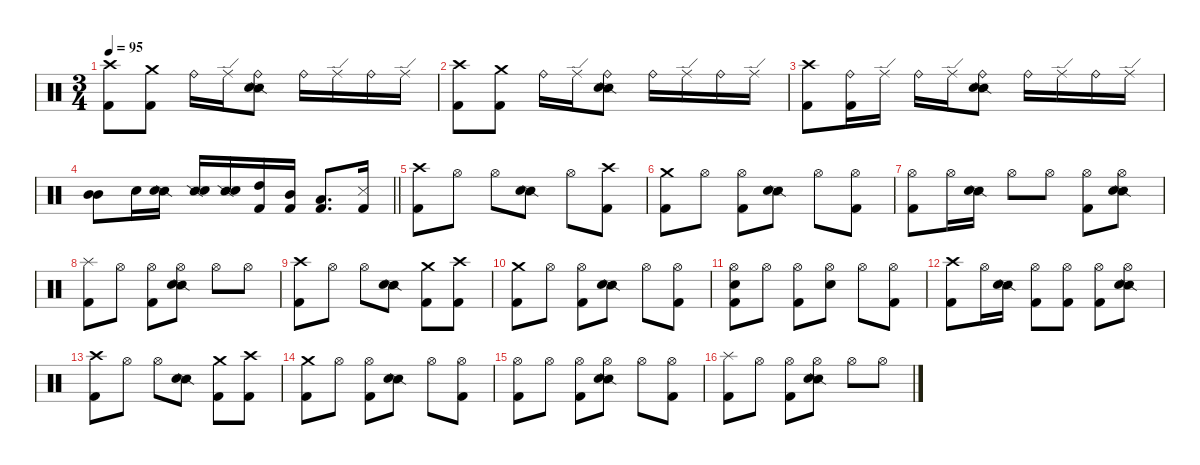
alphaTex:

\defaultSystemsLayout 4
\hideDynamics
\bracketExtendMode nobrackets
\singleTrackTrackNamePolicy hidden
\multiTrackTrackNamePolicy hidden
\firstSystemTrackNameMode fullname
\firstSystemTrackNameOrientation horizontal
\otherSystemsTrackNameOrientation horizontal
\track ("Drums" "drm.") {defaultSystemsLayout 4 instrument percussion}
\staff {score}
\articulation defaults
\ts (3 4)
\tempo 95
\clef neutral
\ks c
("Crash high (hit)" "Kick (hit) 2").8{dy fff beam Down} ("Crash medium (hit)" "Kick (hit) 2").8{beam Down} "Ride (bell)".16{dy f beam Down} "Ride (edge)".16{beam Down} ("Ride (bell)" "Snare (side stick) 2" "Snare (hit) 2").8{beam Down} "Ride (bell)".16{beam Down} "Ride (edge)".16{beam Down} "Ride (bell)".16{beam Down} "Ride (edge)".16{beam Down} |
("Crash high (hit)" "Kick (hit) 2").8{dy fff beam Down} ("Crash medium (hit)" "Kick (hit) 2").8{beam Down} "Ride (bell)".16{dy f beam Down} "Ride (edge)".16{beam Down} ("Ride (bell)" "Snare (side stick) 2" "Snare (hit) 2").8{beam Down} "Ride (bell)".16{beam Down} "Ride (edge)".16{beam Down} "Ride (bell)".16{beam Down} "Ride (edge)".16{beam Down} |
("Crash high (hit)" "Kick (hit) 2").8{dy fff beam Down} ("Ride (bell)" "Kick (hit) 2").16{dy f beam Down} "Ride (edge)".16{beam Down} "Ride (bell)".16{beam Down} "Ride (edge)".16{beam Down} ("Ride (bell)" "Snare (side stick) 2" "Snare (hit) 2").8{beam Down} "Ride (bell)".16{beam Down} "Ride (edge)".16{beam Down} "Ride (bell)".16{beam Down} "Ride (edge)".16{beam Down} |
\barLineRight lightlight
("Mid Tom (hit)" "Mid Tom (hit)").8{dy fff beam Down} "Snare (hit) 2".16{dy mf beam Down} ("Snare (side stick) 2" "Snare (hit) 2").16{dy f beam Down} ("Snare (side stick) 2" "Snare (hit) 2").16{dy ff beam Up} ("Snare (side stick) 2" "Snare (hit) 2").16{dy f beam Up} ("High Tom (hit)" "Kick (hit) 2").16{dy fff beam Up} ("Mid Tom (hit)" "Kick (hit) 2").16{beam Up} ("Low Tom (hit)" "Kick (hit) 2").8{d beam Up} ("Metronome (hit)" "Kick (hit) 2").16{dy f beam Up} |
("Crash high (hit)" "Kick (hit) 2").8{dy fff beam Down} "Hi-Hat (open)".8{dy f beam Down} "Hi-Hat (open)".8{beam Down} ("Snare (side stick) 2" "Snare (hit) 2").8{dy ff beam Down} "Hi-Hat (open)".8{dy f beam Down} ("Crash high (hit)" "Kick (hit) 2").8{beam Down} |
("Crash medium (hit)" "Kick (hit) 2").8{dy fff beam Down} "Hi-Hat (open)".8{dy f beam Down} ("Hi-Hat (open)" "Kick (hit) 2").8{dy mf beam Down} ("Snare (side stick) 2" "Snare (hit) 2").8{dy ff beam Down} "Hi-Hat (open)".8{beam Down} ("Hi-Hat (open)" "Kick (hit) 2").8{beam Down} |
("Hi-Hat (open)" "Kick (hit) 2").8{beam Down} "Hi-Hat (open)".16{beam Down} ("Snare (side stick) 2" "Snare (hit) 2").16{beam Down} "Hi-Hat (open)".8{beam Down} "Hi-Hat (open)".8{beam Down} ("Hi-Hat (open)" "Kick (hit) 2").8{beam Down} ("Hi-Hat (open)" "Snare (side stick) 2" "Snare (hit) 2").8{beam Down} |
("Splash (hit)" "Kick (hit) 2").8{dy fff beam Down} "Hi-Hat (open)".8{dy ff beam Down} ("Hi-Hat (open)" "Kick (hit) 2").8{beam Down} ("Hi-Hat (open)" "Snare (side stick) 2" "Snare (hit) 2").8{beam Down} "Hi-Hat (open)".8{beam Down} "Hi-Hat (open)".8{beam Down} |
("Crash high (hit)" "Kick (hit) 2").8{dy fff beam Down} "Hi-Hat (open)".8{dy mf beam Down} "Hi-Hat (open)".8{dy f beam Down} ("Snare (side stick) 2" "Snare (hit) 2").8{dy ff beam Down} ("Crash medium (hit)" "Kick (hit) 2").8{dy fff beam Down} ("Crash high (hit)" "Kick (hit) 2").8{beam Down} |
("Crash medium (hit)" "Kick (hit) 2").8{beam Down} "Hi-Hat (open)".8{dy f beam Down} ("Hi-Hat (open)" "Kick (hit) 2").8{dy mf beam Down} ("Snare (side stick) 2" "Snare (hit) 2").8{dy ff beam Down} "Hi-Hat (open)".8{beam Down} ("Hi-Hat (open)" "Kick (hit) 2").8{beam Down} |
("Hi-Hat (open)" "Snare (hit) 2" "Kick (hit) 2").8{beam Down} "Hi-Hat (open)".8{beam Down} ("Hi-Hat (open)" "Kick (hit) 2").8{beam Down} ("Hi-Hat (open)" "Snare (hit) 2").8{beam Down} "Hi-Hat (open)".8{beam Down} ("Hi-Hat (open)" "Kick (hit) 2").8{beam Down} |
("Crash high (hit)" "Kick (hit) 2").8{dy fff beam Down} "Hi-Hat (open)".16{dy ff beam Down} ("Snare (side stick) 2" "Snare (hit) 2").16{beam Down} ("Hi-Hat (open)" "Kick (hit) 2").8{beam Down} ("Hi-Hat (open)" "Kick (hit) 2").8{beam Down} ("Hi-Hat (open)" "Kick (hit) 2").8{beam Down} ("Hi-Hat (open)" "Snare (side stick) 2" "Snare (hit) 2").8{beam Down} |
("Crash high (hit)" "Kick (hit) 2").8{dy fff beam Down} "Hi-Hat (open)".8{dy mf beam Down} "Hi-Hat (open)".8{dy f beam Down} ("Snare (side stick) 2" "Snare (hit) 2").8{dy ff beam Down} ("Crash medium (hit)" "Kick (hit) 2").8{dy fff beam Down} ("Crash high (hit)" "Kick (hit) 2").8{beam Down} |
("Crash medium (hit)" "Kick (hit) 2").8{beam Down} "Hi-Hat (open)".8{dy f beam Down} ("Hi-Hat (open)" "Kick (hit) 2").8{dy mf beam Down} ("Snare (side stick) 2" "Snare (hit) 2").8{dy ff beam Down} "Hi-Hat (open)".8{beam Down} ("Hi-Hat (open)" "Kick (hit) 2").8{beam Down} |
("Hi-Hat (open)" "Kick (hit) 2").8{beam Down} "Hi-Hat (open)".8{beam Down} ("Hi-Hat (open)" "Kick (hit) 2").8{beam Down} ("Hi-Hat (open)" "Snare (side stick) 2" "Snare (hit) 2").8{beam Down} "Hi-Hat (open)".8{beam Down} ("Hi-Hat (open)" "Kick (hit) 2").8{beam Down} |
("Splash (hit)" "Kick (hit) 2").8{dy fff beam Down} "Hi-Hat (open)".8{dy ff beam Down} ("Hi-Hat (open)" "Kick (hit) 2").8{beam Down} ("Hi-Hat (open)" "Snare (side stick) 2" "Snare (hit) 2").8{beam Down} "Hi-Hat (open)".8{beam Down} "Hi-Hat (open)".8{beam Down}
